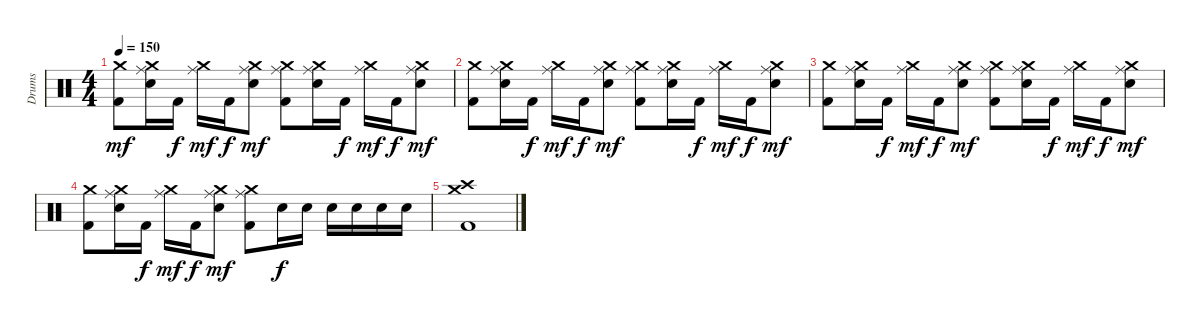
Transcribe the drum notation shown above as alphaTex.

\track ("Drums" "Drums") {instrument percussion}
\staff {score}
\articulation defaults
\ts (4 4)
\tempo 150
\clef neutral
\ks c
("Crash medium (hit)" "Kick (hit) 2").8{dy mf} ("Crash medium (hit)" "Ride (middle)" "Electric Snare (hit)").16 "Kick (hit) 2".16{dy f} ("Crash medium (hit)" "Ride (middle)").16{dy mf} "Kick (hit) 2".16{dy f} ("Crash medium (hit)" "Ride (middle)" "Electric Snare (hit)").8{dy mf} ("Crash medium (hit)" "Ride (middle)" "Kick (hit) 2").8 ("Crash medium (hit)" "Ride (middle)" "Electric Snare (hit)").16 "Kick (hit) 2".16{dy f} ("Crash medium (hit)" "Ride (middle)").16{dy mf} "Kick (hit) 2".16{dy f} ("Crash medium (hit)" "Ride (middle)" "Electric Snare (hit)").8{dy mf} |
("Crash medium (hit)" "Kick (hit) 2").8 ("Crash medium (hit)" "Ride (middle)" "Electric Snare (hit)").16 "Kick (hit) 2".16{dy f} ("Crash medium (hit)" "Ride (middle)").16{dy mf} "Kick (hit) 2".16{dy f} ("Crash medium (hit)" "Ride (middle)" "Electric Snare (hit)").8{dy mf} ("Crash medium (hit)" "Ride (middle)" "Kick (hit) 2").8 ("Crash medium (hit)" "Ride (middle)" "Electric Snare (hit)").16 "Kick (hit) 2".16{dy f} ("Crash medium (hit)" "Ride (middle)").16{dy mf} "Kick (hit) 2".16{dy f} ("Crash medium (hit)" "Ride (middle)" "Electric Snare (hit)").8{dy mf} |
("Crash medium (hit)" "Kick (hit) 2").8 ("Crash medium (hit)" "Ride (middle)" "Electric Snare (hit)").16 "Kick (hit) 2".16{dy f} ("Crash medium (hit)" "Ride (middle)").16{dy mf} "Kick (hit) 2".16{dy f} ("Crash medium (hit)" "Ride (middle)" "Electric Snare (hit)").8{dy mf} ("Crash medium (hit)" "Ride (middle)" "Kick (hit) 2").8 ("Crash medium (hit)" "Ride (middle)" "Electric Snare (hit)").16 "Kick (hit) 2".16{dy f} ("Crash medium (hit)" "Ride (middle)").16{dy mf} "Kick (hit) 2".16{dy f} ("Crash medium (hit)" "Ride (middle)" "Electric Snare (hit)").8{dy mf} |
("Crash medium (hit)" "Kick (hit) 2").8 ("Crash medium (hit)" "Ride (middle)" "Electric Snare (hit)").16 "Kick (hit) 2".16{dy f} ("Crash medium (hit)" "Ride (middle)").16{dy mf} "Kick (hit) 2".16{dy f} ("Crash medium (hit)" "Ride (middle)" "Electric Snare (hit)").8{dy mf} ("Crash medium (hit)" "Ride (middle)" "Kick (hit) 2").8 "Electric Snare (hit)".16{dy f} "Electric Snare (hit)".16 "Electric Snare (hit)".16 "Electric Snare (hit)".16 "Electric Snare (hit)".16 "Electric Snare (hit)".16 |
("Crash high (hit)" "Crash medium (hit)" "Kick (hit) 2").1
